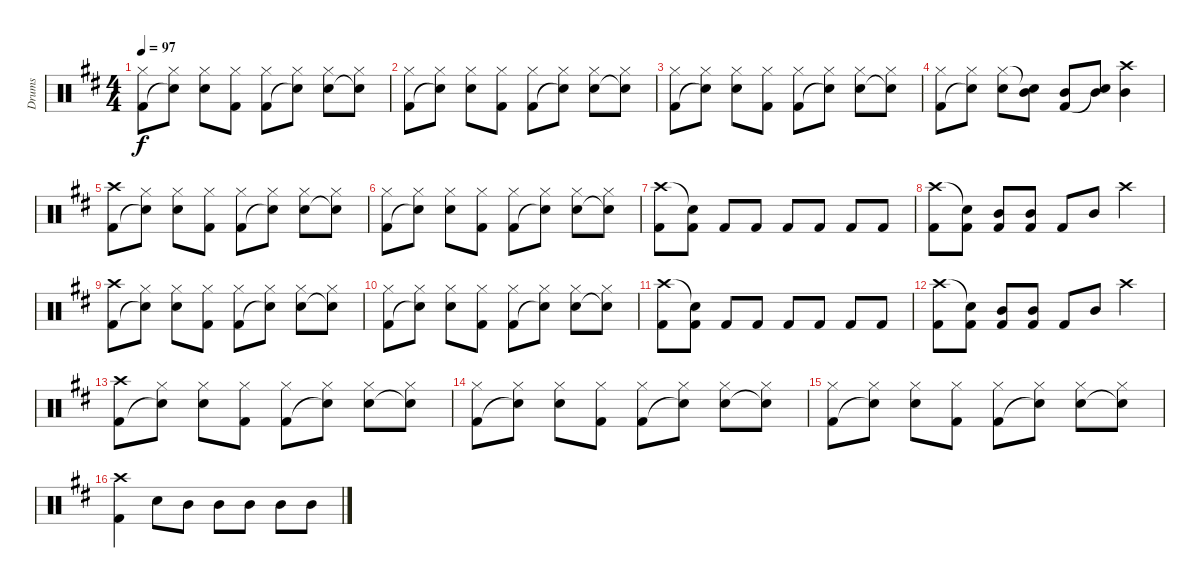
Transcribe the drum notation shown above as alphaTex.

\track ("Drums" "Drums") {instrument percussion}
\staff {score}
\articulation defaults
\ts (4 4)
\tempo 97
\clef neutral
\ks d
("Hi-Hat (closed)" "Kick (hit) 2").8{dy f} ("Hi-Hat (closed)" "Snare (hit)"{t}).8 ("Hi-Hat (closed)" "Snare (hit) 2").8 ("Hi-Hat (closed)" "Kick (hit) 2").8 ("Hi-Hat (closed)" "Kick (hit) 2").8 ("Hi-Hat (closed)" "Snare (hit)"{t}).8 ("Hi-Hat (closed)" "Snare (hit) 2").8 ("Hi-Hat (closed)" "Snare (hit)"{t}).8 |
("Hi-Hat (closed)" "Kick (hit) 2").8 ("Hi-Hat (closed)" "Snare (hit)"{t}).8 ("Hi-Hat (closed)" "Snare (hit) 2").8 ("Hi-Hat (closed)" "Kick (hit) 2").8 ("Hi-Hat (closed)" "Kick (hit) 2").8 ("Hi-Hat (closed)" "Snare (hit)"{t}).8 ("Hi-Hat (closed)" "Snare (hit) 2").8 ("Hi-Hat (closed)" "Snare (hit)"{t}).8 |
("Hi-Hat (closed)" "Kick (hit) 2").8 ("Hi-Hat (closed)" "Snare (hit)"{t}).8 ("Hi-Hat (closed)" "Snare (hit) 2").8 ("Hi-Hat (closed)" "Kick (hit) 2").8 ("Hi-Hat (closed)" "Kick (hit) 2").8 ("Hi-Hat (closed)" "Snare (hit)"{t}).8 ("Hi-Hat (closed)" "Snare (hit) 2").8 ("Hi-Hat (closed)" "Snare (hit)"{t}).8 |
("Hi-Hat (closed)" "Kick (hit) 2").8 ("Hi-Hat (closed)" "Snare (hit)"{t}).8 ("Hi-Hat (closed)" "Snare (hit) 2").8 ("Snare (hit)"{t} "Mid Tom (hit)").8 ("Mid Tom (hit)" "Kick (hit) 2").8 ("Mid Tom (hit)" "Snare (hit)"{t}).8 ("Crash high (hit)" "Mid Tom (hit)").4 |
("Crash high (hit)" "Kick (hit) 2").8 ("Hi-Hat (closed)" "Snare (hit)"{t}).8 ("Hi-Hat (closed)" "Snare (hit) 2").8 ("Hi-Hat (closed)" "Kick (hit) 2").8 ("Hi-Hat (closed)" "Kick (hit) 2").8 ("Hi-Hat (closed)" "Snare (hit)"{t}).8 ("Hi-Hat (closed)" "Snare (hit) 2").8 ("Hi-Hat (closed)" "Snare (hit)"{t}).8 |
("Hi-Hat (closed)" "Kick (hit) 2").8 ("Hi-Hat (closed)" "Snare (hit)"{t}).8 ("Hi-Hat (closed)" "Snare (hit) 2").8 ("Hi-Hat (closed)" "Kick (hit) 2").8 ("Hi-Hat (closed)" "Kick (hit) 2").8 ("Hi-Hat (closed)" "Snare (hit)"{t}).8 ("Hi-Hat (closed)" "Snare (hit) 2").8 ("Hi-Hat (closed)" "Snare (hit)"{t}).8 |
("Crash high (hit)" "Kick (hit) 2").8 ("Snare (hit)"{t} "Kick (hit) 2").8 "Kick (hit) 2".8 "Kick (hit) 2".8 "Kick (hit) 2".8 "Kick (hit) 2".8 "Kick (hit) 2".8 "Kick (hit) 2".8 |
("Crash high (hit)" "Kick (hit) 2").8 ("Snare (hit)"{t} "Kick (hit) 2").8 ("Mid Tom (hit)" "Kick (hit) 2").8 ("Mid Tom (hit)" "Kick (hit) 2").8 "Kick (hit) 2".8 "Mid Tom (hit)".8 "Crash high (hit)".4 |
("Crash high (hit)" "Kick (hit) 2").8 ("Hi-Hat (closed)" "Snare (hit)"{t}).8 ("Hi-Hat (closed)" "Snare (hit) 2").8 ("Hi-Hat (closed)" "Kick (hit) 2").8 ("Hi-Hat (closed)" "Kick (hit) 2").8 ("Hi-Hat (closed)" "Snare (hit)"{t}).8 ("Hi-Hat (closed)" "Snare (hit) 2").8 ("Hi-Hat (closed)" "Snare (hit)"{t}).8 |
("Hi-Hat (closed)" "Kick (hit) 2").8 ("Hi-Hat (closed)" "Snare (hit)"{t}).8 ("Hi-Hat (closed)" "Snare (hit) 2").8 ("Hi-Hat (closed)" "Kick (hit) 2").8 ("Hi-Hat (closed)" "Kick (hit) 2").8 ("Hi-Hat (closed)" "Snare (hit)"{t}).8 ("Hi-Hat (closed)" "Snare (hit) 2").8 ("Hi-Hat (closed)" "Snare (hit)"{t}).8 |
("Crash high (hit)" "Kick (hit) 2").8 ("Snare (hit)"{t} "Kick (hit) 2").8 "Kick (hit) 2".8 "Kick (hit) 2".8 "Kick (hit) 2".8 "Kick (hit) 2".8 "Kick (hit) 2".8 "Kick (hit) 2".8 |
("Crash high (hit)" "Kick (hit) 2").8 ("Snare (hit)"{t} "Kick (hit) 2").8 ("Mid Tom (hit)" "Kick (hit) 2").8 ("Mid Tom (hit)" "Kick (hit) 2").8 "Kick (hit) 2".8 "Mid Tom (hit)".8 "Crash high (hit)".4 |
("Crash high (hit)" "Kick (hit) 2").8 ("Hi-Hat (closed)" "Snare (hit)"{t}).8 ("Hi-Hat (closed)" "Snare (hit) 2").8 ("Hi-Hat (closed)" "Kick (hit) 2").8 ("Hi-Hat (closed)" "Kick (hit) 2").8 ("Hi-Hat (closed)" "Snare (hit)"{t}).8 ("Hi-Hat (closed)" "Snare (hit) 2").8 ("Hi-Hat (closed)" "Snare (hit)"{t}).8 |
("Hi-Hat (closed)" "Kick (hit) 2").8 ("Hi-Hat (closed)" "Snare (hit)"{t}).8 ("Hi-Hat (closed)" "Snare (hit) 2").8 ("Hi-Hat (closed)" "Kick (hit) 2").8 ("Hi-Hat (closed)" "Kick (hit) 2").8 ("Hi-Hat (closed)" "Snare (hit)"{t}).8 ("Hi-Hat (closed)" "Snare (hit) 2").8 ("Hi-Hat (closed)" "Snare (hit)"{t}).8 |
("Hi-Hat (closed)" "Kick (hit) 2").8 ("Hi-Hat (closed)" "Snare (hit)"{t}).8 ("Hi-Hat (closed)" "Snare (hit) 2").8 ("Hi-Hat (closed)" "Kick (hit) 2").8 ("Hi-Hat (closed)" "Kick (hit) 2").8 ("Hi-Hat (closed)" "Snare (hit)"{t}).8 ("Hi-Hat (closed)" "Snare (hit) 2").8 ("Hi-Hat (closed)" "Snare (hit)"{t}).8 |
("Crash high (hit)" "Kick (hit) 2").4 "Snare (hit) 2".8 "Mid Tom (hit)".8 "Mid Tom (hit)".8 "Mid Tom (hit)".8 "Mid Tom (hit)".8 "Mid Tom (hit)".8
